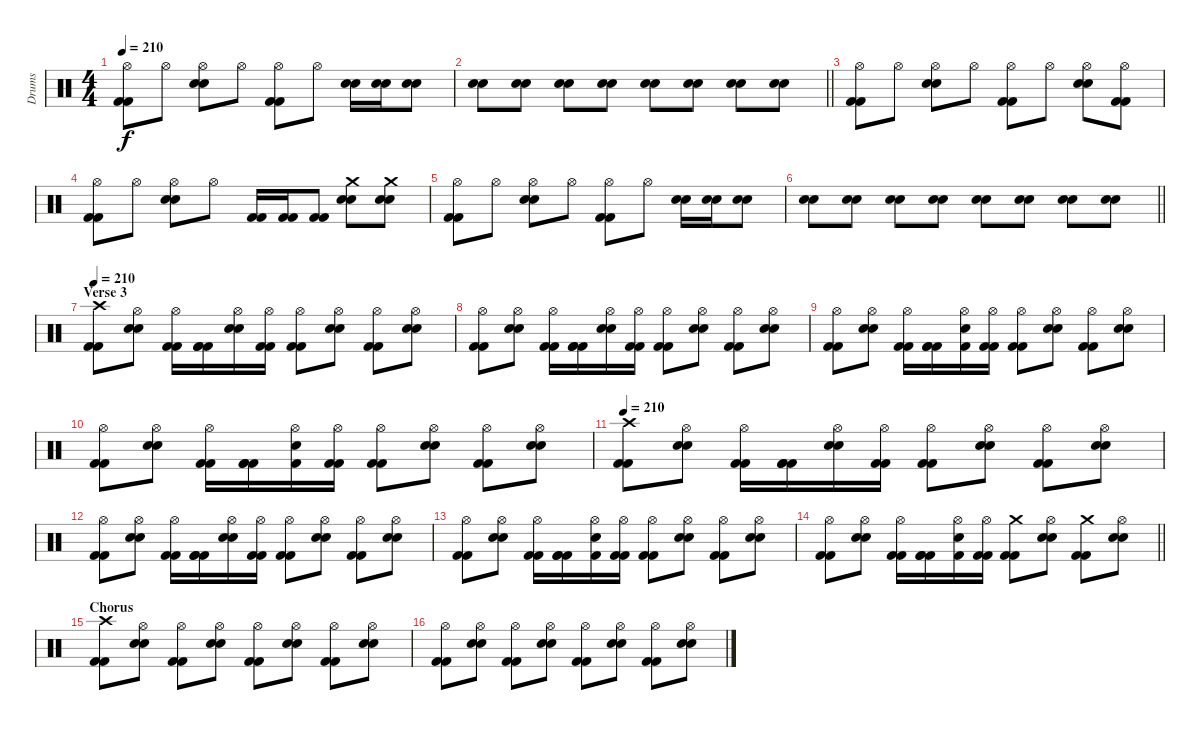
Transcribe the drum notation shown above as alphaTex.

\track ("Drums" "Drums") {instrument percussion}
\staff {score}
\articulation defaults
\ts (4 4)
\tempo 210
\clef neutral
\ks c
("Hi-Hat (open)" "Kick (hit) 2" "Kick (hit) 2").8{dy f} "Hi-Hat (open)".8 ("Hi-Hat (open)" "Snare (hit) 2" "Snare (hit) 2").8 "Hi-Hat (open)".8 ("Hi-Hat (open)" "Kick (hit) 2" "Kick (hit) 2").8 "Hi-Hat (open)".8 ("Snare (hit) 2" "Snare (hit) 2").16 ("Snare (hit) 2" "Snare (hit) 2").16 ("Snare (hit) 2" "Snare (hit) 2").8 |
\barLineRight lightlight
("Snare (hit) 2" "Snare (hit) 2").8 ("Snare (hit) 2" "Snare (hit) 2").8 ("Snare (hit) 2" "Snare (hit) 2").8 ("Snare (hit) 2" "Snare (hit) 2").8 ("Snare (hit) 2" "Snare (hit) 2").8 ("Snare (hit) 2" "Snare (hit) 2").8 ("Snare (hit) 2" "Snare (hit) 2").8 ("Snare (hit) 2" "Snare (hit) 2").8 |
("Hi-Hat (open)" "Kick (hit) 2" "Kick (hit) 2").8 "Hi-Hat (open)".8 ("Hi-Hat (open)" "Snare (hit) 2" "Snare (hit) 2").8 "Hi-Hat (open)".8 ("Hi-Hat (open)" "Kick (hit) 2" "Kick (hit) 2").8 "Hi-Hat (open)".8 ("Hi-Hat (open)" "Snare (hit) 2" "Snare (hit) 2").8 ("Hi-Hat (open)" "Kick (hit) 2" "Kick (hit) 2").8 |
("Hi-Hat (open)" "Kick (hit) 2" "Kick (hit) 2").8 "Hi-Hat (open)".8 ("Hi-Hat (open)" "Snare (hit) 2" "Snare (hit) 2").8 "Hi-Hat (open)".8 ("Kick (hit) 2" "Kick (hit) 2").16 ("Kick (hit) 2" "Kick (hit) 2").16 ("Kick (hit) 2" "Kick (hit) 2").8 ("Crash medium (hit)" "Snare (hit) 2" "Snare (hit) 2").8 ("Crash medium (hit)" "Snare (hit) 2" "Snare (hit) 2").8 |
("Hi-Hat (open)" "Kick (hit) 2" "Kick (hit) 2").8 "Hi-Hat (open)".8 ("Hi-Hat (open)" "Snare (hit) 2" "Snare (hit) 2").8 "Hi-Hat (open)".8 ("Hi-Hat (open)" "Kick (hit) 2" "Kick (hit) 2").8 "Hi-Hat (open)".8 ("Snare (hit) 2" "Snare (hit) 2").16 ("Snare (hit) 2" "Snare (hit) 2").16 ("Snare (hit) 2" "Snare (hit) 2").8 |
\barLineRight lightlight
("Snare (hit) 2" "Snare (hit) 2").8 ("Snare (hit) 2" "Snare (hit) 2").8 ("Snare (hit) 2" "Snare (hit) 2").8 ("Snare (hit) 2" "Snare (hit) 2").8 ("Snare (hit) 2" "Snare (hit) 2").8 ("Snare (hit) 2" "Snare (hit) 2").8 ("Snare (hit) 2" "Snare (hit) 2").8 ("Snare (hit) 2" "Snare (hit) 2").8 |
\section ("" "Verse 3")
\tempo 210
("Crash high (hit)" "Kick (hit) 2" "Kick (hit) 2").8 ("Hi-Hat (open)" "Snare (hit) 2" "Snare (hit) 2").8 ("Hi-Hat (open)" "Kick (hit) 2" "Kick (hit) 2").16 ("Kick (hit) 2" "Kick (hit) 2" "Kick (hit) 2").16 ("Hi-Hat (open)" "Snare (hit) 2" "Snare (hit) 2").16 ("Hi-Hat (open)" "Kick (hit) 2" "Kick (hit) 2").16 ("Hi-Hat (open)" "Kick (hit) 2" "Kick (hit) 2").8 ("Hi-Hat (open)" "Snare (hit) 2" "Snare (hit) 2").8 ("Hi-Hat (open)" "Kick (hit) 2" "Kick (hit) 2").8 ("Hi-Hat (open)" "Snare (hit) 2" "Snare (hit) 2").8 |
("Hi-Hat (open)" "Kick (hit) 2" "Kick (hit) 2").8 ("Hi-Hat (open)" "Snare (hit) 2" "Snare (hit) 2").8 ("Hi-Hat (open)" "Kick (hit) 2" "Kick (hit) 2").16 ("Kick (hit) 2" "Kick (hit) 2" "Kick (hit) 2").16 ("Hi-Hat (open)" "Snare (hit) 2" "Snare (hit) 2").16 ("Hi-Hat (open)" "Kick (hit) 2" "Kick (hit) 2").16 ("Hi-Hat (open)" "Kick (hit) 2" "Kick (hit) 2").8 ("Hi-Hat (open)" "Snare (hit) 2" "Snare (hit) 2").8 ("Hi-Hat (open)" "Kick (hit) 2" "Kick (hit) 2").8 ("Hi-Hat (open)" "Snare (hit) 2" "Snare (hit) 2").8 |
("Hi-Hat (open)" "Kick (hit) 2" "Kick (hit) 2").8 ("Hi-Hat (open)" "Snare (hit) 2" "Snare (hit) 2").8 ("Hi-Hat (open)" "Kick (hit) 2" "Kick (hit) 2").16 ("Kick (hit) 2" "Kick (hit) 2" "Kick (hit) 2").16 ("Hi-Hat (open)" "Snare (hit) 2" "Kick (hit) 2").16 ("Hi-Hat (open)" "Kick (hit) 2" "Kick (hit) 2").16 ("Hi-Hat (open)" "Kick (hit) 2" "Kick (hit) 2").8 ("Hi-Hat (open)" "Snare (hit) 2" "Snare (hit) 2").8 ("Hi-Hat (open)" "Kick (hit) 2" "Kick (hit) 2").8 ("Hi-Hat (open)" "Snare (hit) 2" "Snare (hit) 2").8 |
("Hi-Hat (open)" "Kick (hit) 2" "Kick (hit) 2").8 ("Hi-Hat (open)" "Snare (hit) 2" "Snare (hit) 2").8 ("Hi-Hat (open)" "Kick (hit) 2" "Kick (hit) 2").16 ("Kick (hit) 2" "Kick (hit) 2" "Kick (hit) 2").16 ("Hi-Hat (open)" "Snare (hit) 2" "Kick (hit) 2").16 ("Hi-Hat (open)" "Kick (hit) 2" "Kick (hit) 2").16 ("Hi-Hat (open)" "Kick (hit) 2" "Kick (hit) 2").8 ("Hi-Hat (open)" "Snare (hit) 2" "Snare (hit) 2").8 ("Hi-Hat (open)" "Kick (hit) 2" "Kick (hit) 2").8 ("Hi-Hat (open)" "Snare (hit) 2" "Snare (hit) 2").8 |
\tempo 210
("Crash high (hit)" "Kick (hit) 2" "Kick (hit) 2").8 ("Hi-Hat (open)" "Snare (hit) 2" "Snare (hit) 2").8 ("Hi-Hat (open)" "Kick (hit) 2" "Kick (hit) 2").16 ("Kick (hit) 2" "Kick (hit) 2" "Kick (hit) 2").16 ("Hi-Hat (open)" "Snare (hit) 2" "Snare (hit) 2").16 ("Hi-Hat (open)" "Kick (hit) 2" "Kick (hit) 2").16 ("Hi-Hat (open)" "Kick (hit) 2" "Kick (hit) 2").8 ("Hi-Hat (open)" "Snare (hit) 2" "Snare (hit) 2").8 ("Hi-Hat (open)" "Kick (hit) 2" "Kick (hit) 2").8 ("Hi-Hat (open)" "Snare (hit) 2" "Snare (hit) 2").8 |
("Hi-Hat (open)" "Kick (hit) 2" "Kick (hit) 2").8 ("Hi-Hat (open)" "Snare (hit) 2" "Snare (hit) 2").8 ("Hi-Hat (open)" "Kick (hit) 2" "Kick (hit) 2").16 ("Kick (hit) 2" "Kick (hit) 2" "Kick (hit) 2").16 ("Hi-Hat (open)" "Snare (hit) 2" "Snare (hit) 2").16 ("Hi-Hat (open)" "Kick (hit) 2" "Kick (hit) 2").16 ("Hi-Hat (open)" "Kick (hit) 2" "Kick (hit) 2").8 ("Hi-Hat (open)" "Snare (hit) 2" "Snare (hit) 2").8 ("Hi-Hat (open)" "Kick (hit) 2" "Kick (hit) 2").8 ("Hi-Hat (open)" "Snare (hit) 2" "Snare (hit) 2").8 |
("Hi-Hat (open)" "Kick (hit) 2" "Kick (hit) 2").8 ("Hi-Hat (open)" "Snare (hit) 2" "Snare (hit) 2").8 ("Hi-Hat (open)" "Kick (hit) 2" "Kick (hit) 2").16 ("Kick (hit) 2" "Kick (hit) 2" "Kick (hit) 2").16 ("Hi-Hat (open)" "Snare (hit) 2" "Kick (hit) 2").16 ("Hi-Hat (open)" "Kick (hit) 2" "Kick (hit) 2").16 ("Hi-Hat (open)" "Kick (hit) 2" "Kick (hit) 2").8 ("Hi-Hat (open)" "Snare (hit) 2" "Snare (hit) 2").8 ("Hi-Hat (open)" "Kick (hit) 2" "Kick (hit) 2").8 ("Hi-Hat (open)" "Snare (hit) 2" "Snare (hit) 2").8 |
\barLineRight lightlight
("Hi-Hat (open)" "Kick (hit) 2" "Kick (hit) 2").8 ("Hi-Hat (open)" "Snare (hit) 2" "Snare (hit) 2").8 ("Hi-Hat (open)" "Kick (hit) 2" "Kick (hit) 2").16 ("Kick (hit) 2" "Kick (hit) 2" "Kick (hit) 2").16 ("Hi-Hat (open)" "Snare (hit) 2" "Kick (hit) 2").16 ("Hi-Hat (open)" "Kick (hit) 2" "Kick (hit) 2").16 ("Crash medium (hit)" "Kick (hit) 2" "Kick (hit) 2").8 ("Hi-Hat (open)" "Snare (hit) 2" "Snare (hit) 2").8 ("Crash medium (hit)" "Kick (hit) 2" "Kick (hit) 2").8 ("Hi-Hat (open)" "Snare (hit) 2" "Snare (hit) 2").8 |
\section ("" "Chorus")
("Crash high (hit)" "Kick (hit) 2" "Kick (hit) 2").8 ("Hi-Hat (open)" "Snare (hit) 2" "Snare (hit) 2").8 ("Hi-Hat (open)" "Kick (hit) 2" "Kick (hit) 2").8 ("Hi-Hat (open)" "Snare (hit) 2" "Snare (hit) 2").8 ("Hi-Hat (open)" "Kick (hit) 2" "Kick (hit) 2").8 ("Hi-Hat (open)" "Snare (hit) 2" "Snare (hit) 2").8 ("Hi-Hat (open)" "Kick (hit) 2" "Kick (hit) 2").8 ("Hi-Hat (open)" "Snare (hit) 2" "Snare (hit) 2").8 |
("Hi-Hat (open)" "Kick (hit) 2" "Kick (hit) 2").8 ("Hi-Hat (open)" "Snare (hit) 2" "Snare (hit) 2").8 ("Hi-Hat (open)" "Kick (hit) 2" "Kick (hit) 2").8 ("Hi-Hat (open)" "Snare (hit) 2" "Snare (hit) 2").8 ("Hi-Hat (open)" "Kick (hit) 2" "Kick (hit) 2").8 ("Hi-Hat (open)" "Snare (hit) 2" "Snare (hit) 2").8 ("Hi-Hat (open)" "Kick (hit) 2" "Kick (hit) 2").8 ("Hi-Hat (open)" "Snare (hit) 2" "Snare (hit) 2").8
